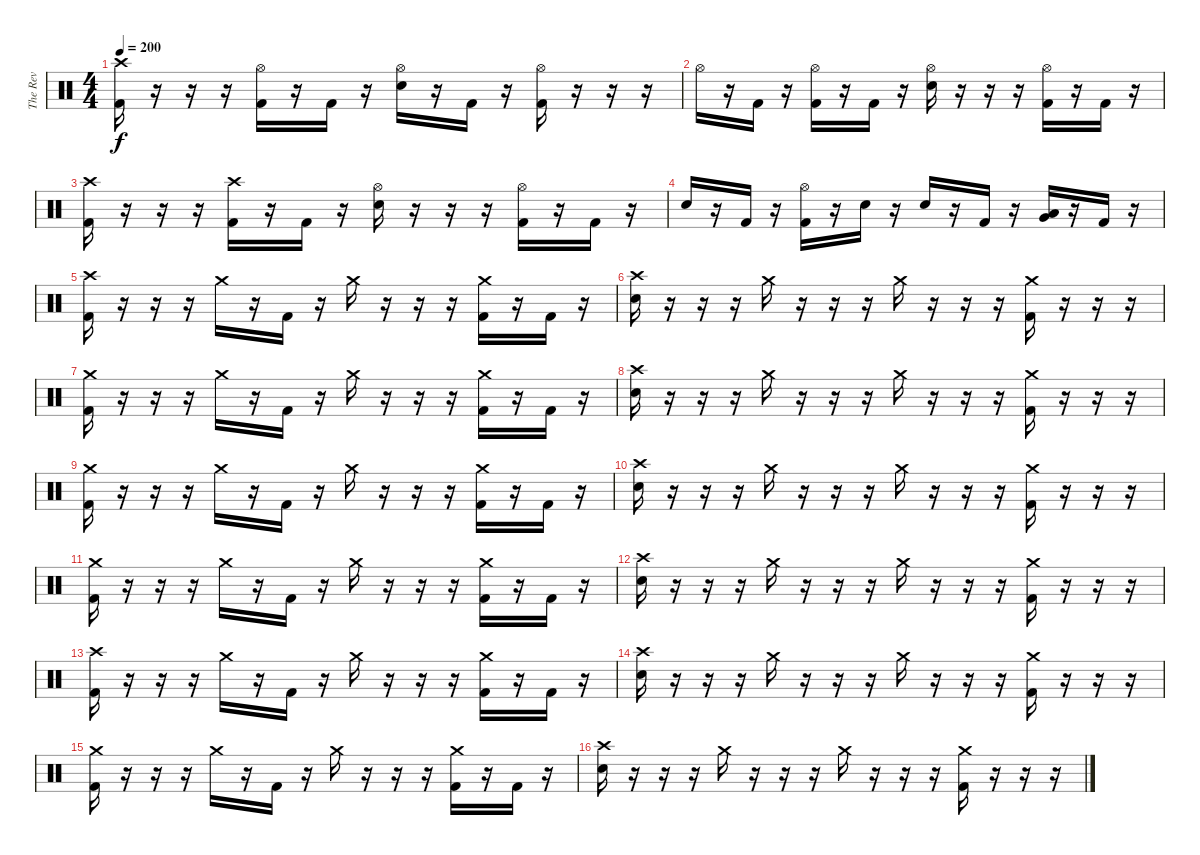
\track ("The Rev" "The Rev") {instrument percussion}
\staff {score}
\articulation defaults
\ts (4 4)
\tempo 200
\clef neutral
\ks c
("Crash high (hit)" "Kick (hit) 2").16{dy f} r.16 r.16 r.16 ("Hi-Hat (open)" "Kick (hit) 2").16 r.16 "Kick (hit) 2".16 r.16 ("Hi-Hat (open)" "Electric Snare (hit)").16 r.16 "Kick (hit) 2".16 r.16 ("Hi-Hat (open)" "Kick (hit) 2").16 r.16 r.16 r.16 |
"Hi-Hat (open)".16 r.16 "Kick (hit) 2".16 r.16 ("Hi-Hat (open)" "Kick (hit) 2").16 r.16 "Kick (hit) 2".16 r.16 ("Hi-Hat (open)" "Electric Snare (hit)").16 r.16 r.16 r.16 ("Hi-Hat (open)" "Kick (hit) 2").16 r.16 "Kick (hit) 2".16 r.16 |
("Crash high (hit)" "Kick (hit) 2").16 r.16 r.16 r.16 ("Crash high (hit)" "Kick (hit) 2").16 r.16 "Kick (hit) 2".16 r.16 ("Hi-Hat (open)" "Electric Snare (hit)").16 r.16 r.16 r.16 ("Hi-Hat (open)" "Kick (hit) 2").16 r.16 "Kick (hit) 2".16 r.16 |
"Electric Snare (hit)".16 r.16 "Kick (hit) 2".16 r.16 ("Hi-Hat (open)" "Kick (hit) 2").16 r.16 "Electric Snare (hit)".16 r.16 "Electric Snare (hit)".16 r.16 "Kick (hit) 2".16 r.16 ("Low Tom (hit)" "Very Low Tom (hit)").16 r.16 "Kick (hit) 2".16 r.16 |
("Crash high (hit)" "Kick (hit) 2").16 r.16 r.16 r.16 "Crash medium (hit)".16 r.16 "Kick (hit) 2".16 r.16 "Crash medium (hit)".16 r.16 r.16 r.16 ("Crash medium (hit)" "Kick (hit) 2").16 r.16 "Kick (hit) 2".16 r.16 |
("Crash high (hit)" "Electric Snare (hit)").16 r.16 r.16 r.16 "Crash medium (hit)".16 r.16 r.16 r.16 "Crash medium (hit)".16 r.16 r.16 r.16 ("Crash medium (hit)" "Kick (hit) 2").16 r.16 r.16 r.16 |
("Crash medium (hit)" "Kick (hit) 2").16 r.16 r.16 r.16 "Crash medium (hit)".16 r.16 "Kick (hit) 2".16 r.16 "Crash medium (hit)".16 r.16 r.16 r.16 ("Crash medium (hit)" "Kick (hit) 2").16 r.16 "Kick (hit) 2".16 r.16 |
("Crash high (hit)" "Electric Snare (hit)").16 r.16 r.16 r.16 "Crash medium (hit)".16 r.16 r.16 r.16 "Crash medium (hit)".16 r.16 r.16 r.16 ("Crash medium (hit)" "Kick (hit) 2").16 r.16 r.16 r.16 |
("Crash medium (hit)" "Kick (hit) 2").16 r.16 r.16 r.16 "Crash medium (hit)".16 r.16 "Kick (hit) 2".16 r.16 "Crash medium (hit)".16 r.16 r.16 r.16 ("Crash medium (hit)" "Kick (hit) 2").16 r.16 "Kick (hit) 2".16 r.16 |
("Crash high (hit)" "Electric Snare (hit)").16 r.16 r.16 r.16 "Crash medium (hit)".16 r.16 r.16 r.16 "Crash medium (hit)".16 r.16 r.16 r.16 ("Crash medium (hit)" "Kick (hit) 2").16 r.16 r.16 r.16 |
("Crash medium (hit)" "Kick (hit) 2").16 r.16 r.16 r.16 "Crash medium (hit)".16 r.16 "Kick (hit) 2".16 r.16 "Crash medium (hit)".16 r.16 r.16 r.16 ("Crash medium (hit)" "Kick (hit) 2").16 r.16 "Kick (hit) 2".16 r.16 |
("Crash high (hit)" "Electric Snare (hit)").16 r.16 r.16 r.16 "Crash medium (hit)".16 r.16 r.16 r.16 "Crash medium (hit)".16 r.16 r.16 r.16 ("Crash medium (hit)" "Kick (hit) 2").16 r.16 r.16 r.16 |
("Crash high (hit)" "Kick (hit) 2").16 r.16 r.16 r.16 "Crash medium (hit)".16 r.16 "Kick (hit) 2".16 r.16 "Crash medium (hit)".16 r.16 r.16 r.16 ("Crash medium (hit)" "Kick (hit) 2").16 r.16 "Kick (hit) 2".16 r.16 |
("Crash high (hit)" "Electric Snare (hit)").16 r.16 r.16 r.16 "Crash medium (hit)".16 r.16 r.16 r.16 "Crash medium (hit)".16 r.16 r.16 r.16 ("Crash medium (hit)" "Kick (hit) 2").16 r.16 r.16 r.16 |
("Crash medium (hit)" "Kick (hit) 2").16 r.16 r.16 r.16 "Crash medium (hit)".16 r.16 "Kick (hit) 2".16 r.16 "Crash medium (hit)".16 r.16 r.16 r.16 ("Crash medium (hit)" "Kick (hit) 2").16 r.16 "Kick (hit) 2".16 r.16 |
("Crash high (hit)" "Electric Snare (hit)").16 r.16 r.16 r.16 "Crash medium (hit)".16 r.16 r.16 r.16 "Crash medium (hit)".16 r.16 r.16 r.16 ("Crash medium (hit)" "Kick (hit) 2").16 r.16 r.16 r.16
